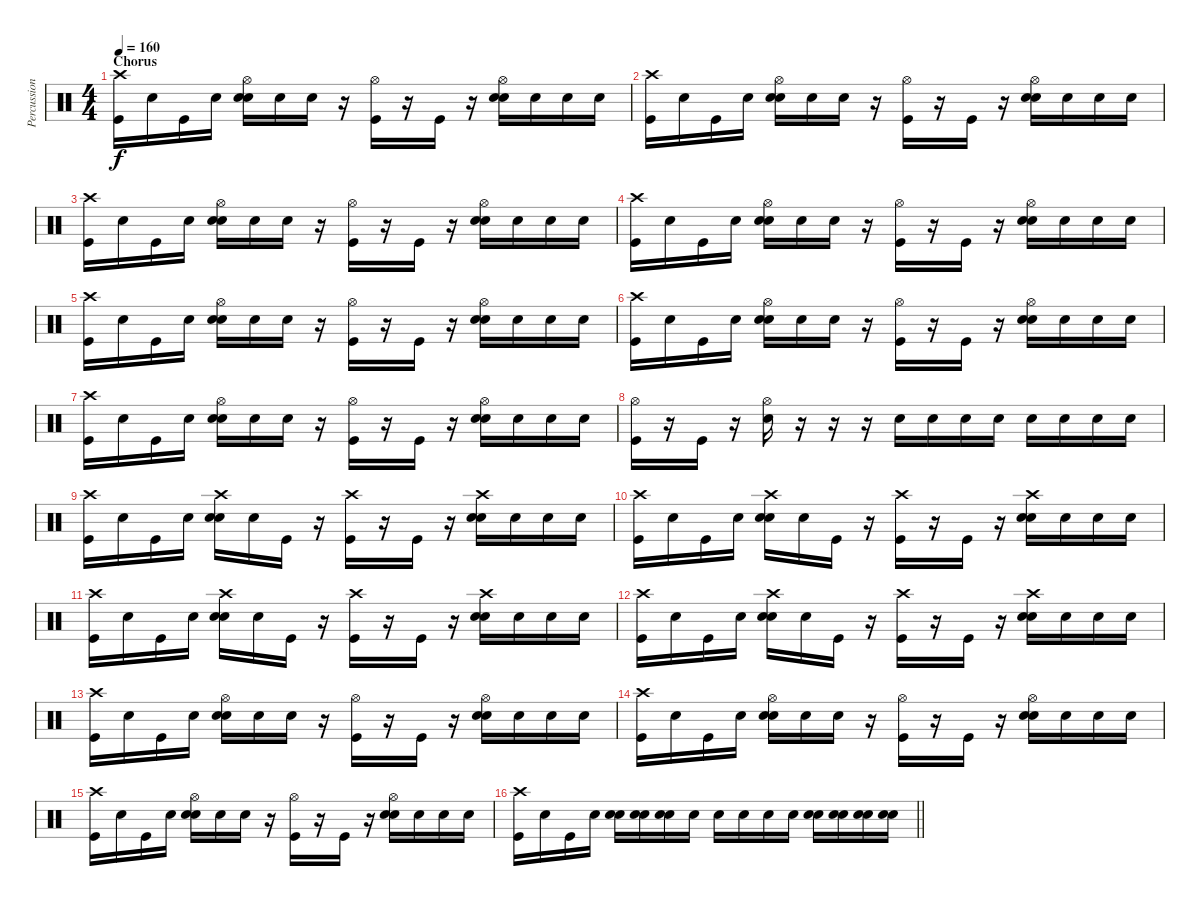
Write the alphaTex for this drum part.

\track ("Percussion" "Percussion") {instrument percussion}
\staff {score}
\articulation defaults
\ts (4 4)
\section ("" "Chorus")
\tempo 160
\clef neutral
\ks c
("Kick (hit)" "Crash high (hit)").16{dy f} "Snare (hit)".16 "Kick (hit)".16 "Snare (hit)".16 ("Snare (hit)" "Electric Snare (hit)" "Hi-Hat (open)").16 "Snare (hit)".16 "Snare (hit)".16 r.16 ("Kick (hit)" "Hi-Hat (open)").16 r.16 "Kick (hit)".16 r.16 ("Snare (hit)" "Electric Snare (hit)" "Hi-Hat (open)").16 "Snare (hit)".16 "Snare (hit)".16 "Snare (hit)".16 |
("Kick (hit)" "Crash high (hit)").16 "Snare (hit)".16 "Kick (hit)".16 "Snare (hit)".16 ("Snare (hit)" "Electric Snare (hit)" "Hi-Hat (open)").16 "Snare (hit)".16 "Snare (hit)".16 r.16 ("Kick (hit)" "Hi-Hat (open)").16 r.16 "Kick (hit)".16 r.16 ("Snare (hit)" "Electric Snare (hit)" "Hi-Hat (open)").16 "Snare (hit)".16 "Snare (hit)".16 "Snare (hit)".16 |
("Kick (hit)" "Crash high (hit)").16 "Snare (hit)".16 "Kick (hit)".16 "Snare (hit)".16 ("Snare (hit)" "Electric Snare (hit)" "Hi-Hat (open)").16 "Snare (hit)".16 "Snare (hit)".16 r.16 ("Kick (hit)" "Hi-Hat (open)").16 r.16 "Kick (hit)".16 r.16 ("Snare (hit)" "Electric Snare (hit)" "Hi-Hat (open)").16 "Snare (hit)".16 "Snare (hit)".16 "Snare (hit)".16 |
("Kick (hit)" "Crash high (hit)").16 "Snare (hit)".16 "Kick (hit)".16 "Snare (hit)".16 ("Snare (hit)" "Electric Snare (hit)" "Hi-Hat (open)").16 "Snare (hit)".16 "Snare (hit)".16 r.16 ("Kick (hit)" "Hi-Hat (open)").16 r.16 "Kick (hit)".16 r.16 ("Snare (hit)" "Electric Snare (hit)" "Hi-Hat (open)").16 "Snare (hit)".16 "Snare (hit)".16 "Snare (hit)".16 |
("Kick (hit)" "Crash high (hit)").16 "Snare (hit)".16 "Kick (hit)".16 "Snare (hit)".16 ("Snare (hit)" "Electric Snare (hit)" "Hi-Hat (open)").16 "Snare (hit)".16 "Snare (hit)".16 r.16 ("Kick (hit)" "Hi-Hat (open)").16 r.16 "Kick (hit)".16 r.16 ("Snare (hit)" "Electric Snare (hit)" "Hi-Hat (open)").16 "Snare (hit)".16 "Snare (hit)".16 "Snare (hit)".16 |
("Kick (hit)" "Crash high (hit)").16 "Snare (hit)".16 "Kick (hit)".16 "Snare (hit)".16 ("Snare (hit)" "Electric Snare (hit)" "Hi-Hat (open)").16 "Snare (hit)".16 "Snare (hit)".16 r.16 ("Kick (hit)" "Hi-Hat (open)").16 r.16 "Kick (hit)".16 r.16 ("Snare (hit)" "Electric Snare (hit)" "Hi-Hat (open)").16 "Snare (hit)".16 "Snare (hit)".16 "Snare (hit)".16 |
("Kick (hit)" "Crash high (hit)").16 "Snare (hit)".16 "Kick (hit)".16 "Snare (hit)".16 ("Snare (hit)" "Electric Snare (hit)" "Hi-Hat (open)").16 "Snare (hit)".16 "Snare (hit)".16 r.16 ("Kick (hit)" "Hi-Hat (open)").16 r.16 "Kick (hit)".16 r.16 ("Snare (hit)" "Electric Snare (hit)" "Hi-Hat (open)").16 "Snare (hit)".16 "Snare (hit)".16 "Snare (hit)".16 |
("Kick (hit)" "Hi-Hat (open)").16 r.16 "Kick (hit)".16 r.16 ("Electric Snare (hit)" "Hi-Hat (open)").16 r.16 r.16 r.16 "Electric Snare (hit)".16 "Electric Snare (hit)".16 "Electric Snare (hit)".16 "Electric Snare (hit)".16 "Electric Snare (hit)".16 "Electric Snare (hit)".16 "Electric Snare (hit)".16 "Electric Snare (hit)".16 |
("Kick (hit)" "Crash high (hit)").16 "Snare (hit)".16 "Kick (hit)".16 "Snare (hit)".16 ("Snare (hit)" "Electric Snare (hit)" "Crash high (hit)").16 "Snare (hit)".16 "Kick (hit)".16 r.16 ("Kick (hit)" "Crash high (hit)").16 r.16 "Kick (hit)".16 r.16 ("Snare (hit)" "Electric Snare (hit)" "Crash high (hit)").16 "Snare (hit)".16 "Snare (hit)".16 "Snare (hit)".16 |
("Kick (hit)" "Crash high (hit)").16 "Snare (hit)".16 "Kick (hit)".16 "Snare (hit)".16 ("Snare (hit)" "Electric Snare (hit)" "Crash high (hit)").16 "Snare (hit)".16 "Kick (hit)".16 r.16 ("Kick (hit)" "Crash high (hit)").16 r.16 "Kick (hit)".16 r.16 ("Snare (hit)" "Electric Snare (hit)" "Crash high (hit)").16 "Snare (hit)".16 "Snare (hit)".16 "Snare (hit)".16 |
("Kick (hit)" "Crash high (hit)").16 "Snare (hit)".16 "Kick (hit)".16 "Snare (hit)".16 ("Snare (hit)" "Electric Snare (hit)" "Crash high (hit)").16 "Snare (hit)".16 "Kick (hit)".16 r.16 ("Kick (hit)" "Crash high (hit)").16 r.16 "Kick (hit)".16 r.16 ("Snare (hit)" "Electric Snare (hit)" "Crash high (hit)").16 "Snare (hit)".16 "Snare (hit)".16 "Snare (hit)".16 |
("Kick (hit)" "Crash high (hit)").16 "Snare (hit)".16 "Kick (hit)".16 "Snare (hit)".16 ("Snare (hit)" "Electric Snare (hit)" "Crash high (hit)").16 "Snare (hit)".16 "Kick (hit)".16 r.16 ("Kick (hit)" "Crash high (hit)").16 r.16 "Kick (hit)".16 r.16 ("Snare (hit)" "Electric Snare (hit)" "Crash high (hit)").16 "Snare (hit)".16 "Snare (hit)".16 "Snare (hit)".16 |
("Kick (hit)" "Crash high (hit)").16 "Snare (hit)".16 "Kick (hit)".16 "Snare (hit)".16 ("Snare (hit)" "Electric Snare (hit)" "Hi-Hat (open)").16 "Snare (hit)".16 "Snare (hit)".16 r.16 ("Kick (hit)" "Hi-Hat (open)").16 r.16 "Kick (hit)".16 r.16 ("Snare (hit)" "Electric Snare (hit)" "Hi-Hat (open)").16 "Snare (hit)".16 "Snare (hit)".16 "Snare (hit)".16 |
("Kick (hit)" "Crash high (hit)").16 "Snare (hit)".16 "Kick (hit)".16 "Snare (hit)".16 ("Snare (hit)" "Electric Snare (hit)" "Hi-Hat (open)").16 "Snare (hit)".16 "Snare (hit)".16 r.16 ("Kick (hit)" "Hi-Hat (open)").16 r.16 "Kick (hit)".16 r.16 ("Snare (hit)" "Electric Snare (hit)" "Hi-Hat (open)").16 "Snare (hit)".16 "Snare (hit)".16 "Snare (hit)".16 |
("Kick (hit)" "Crash high (hit)").16 "Snare (hit)".16 "Kick (hit)".16 "Snare (hit)".16 ("Snare (hit)" "Electric Snare (hit)" "Hi-Hat (open)").16 "Snare (hit)".16 "Snare (hit)".16 r.16 ("Kick (hit)" "Hi-Hat (open)").16 r.16 "Kick (hit)".16 r.16 ("Snare (hit)" "Electric Snare (hit)" "Hi-Hat (open)").16 "Snare (hit)".16 "Snare (hit)".16 "Snare (hit)".16 |
\barLineRight lightlight
("Kick (hit)" "Crash high (hit)").16 "Snare (hit)".16 "Kick (hit)".16 "Snare (hit)".16 ("Snare (hit)" "Electric Snare (hit)").16 ("Snare (hit)" "Electric Snare (hit)").16 ("Snare (hit)" "Electric Snare (hit)").16 "Electric Snare (hit)".16 "Electric Snare (hit)".16 "Electric Snare (hit)".16 "Electric Snare (hit)".16 "Electric Snare (hit)".16 ("Snare (hit)" "Electric Snare (hit)").16 ("Snare (hit)" "Electric Snare (hit)").16 ("Snare (hit)" "Electric Snare (hit)").16 ("Snare (hit)" "Electric Snare (hit)").16
